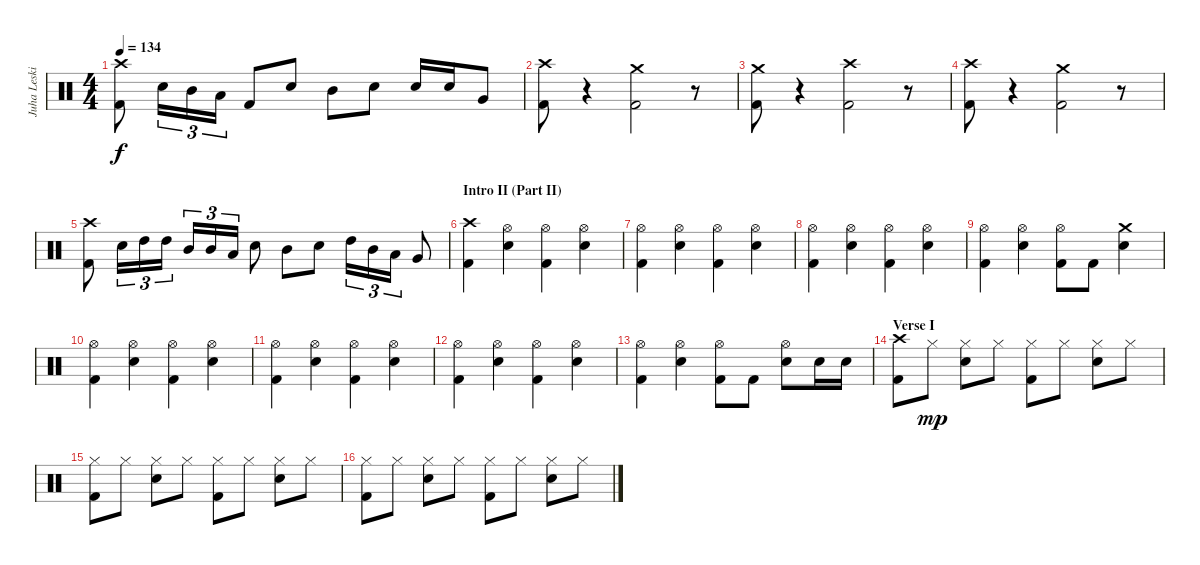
\track ("Juha Leskinen - Drums" "Juha Leski") {instrument percussion}
\staff {score}
\articulation defaults
\ts (4 4)
\tempo 134
\clef neutral
\ks c
("Crash high (hit)" "Kick (hit) 2").8{dy f} "Electric Snare (hit)".16{tu (3 2)} "Mid Tom (hit)".16{tu (3 2)} "Low Tom (hit)".16{tu (3 2)} "Kick (hit) 2".8 "Electric Snare (hit)".8 "Mid Tom (hit)".8 "Electric Snare (hit)".8 "Electric Snare (hit)".16 "Electric Snare (hit)".16 "Very Low Tom (hit)".8 |
("Crash high (hit)" "Kick (hit) 2").8 r.4 ("Crash medium (hit)" "Kick (hit) 2").2 r.8 |
("Crash medium (hit)" "Kick (hit) 2").8 r.4 ("Crash high (hit)" "Kick (hit) 2").2 r.8 |
("Crash high (hit)" "Kick (hit) 2").8 r.4 ("Crash medium (hit)" "Kick (hit) 2").2 r.8 |
("Crash high (hit)" "Kick (hit) 2").8 "Electric Snare (hit)".16{tu (3 2)} "High Tom (hit)".16{tu (3 2)} "High Tom (hit)".16{tu (3 2)} "Mid Tom (hit)".16{tu (3 2)} "Mid Tom (hit)".16{tu (3 2)} "Low Tom (hit)".16{tu (3 2)} "Electric Snare (hit)".8 "Mid Tom (hit)".8 "Electric Snare (hit)".8 "High Tom (hit)".16{tu (3 2)} "Mid Tom (hit)".16{tu (3 2)} "Low Tom (hit)".16{tu (3 2)} "Very Low Tom (hit)".8 |
\section ("" "Intro II (Part II)")
("Crash high (hit)" "Kick (hit) 2").4 ("Hi-Hat (open)" "Electric Snare (hit)").4 ("Hi-Hat (open)" "Kick (hit) 2").4 ("Hi-Hat (open)" "Electric Snare (hit)").4 |
("Hi-Hat (open)" "Kick (hit) 2").4 ("Hi-Hat (open)" "Electric Snare (hit)").4 ("Hi-Hat (open)" "Kick (hit) 2").4 ("Hi-Hat (open)" "Electric Snare (hit)").4 |
("Hi-Hat (open)" "Kick (hit) 2").4 ("Hi-Hat (open)" "Electric Snare (hit)").4 ("Hi-Hat (open)" "Kick (hit) 2").4 ("Hi-Hat (open)" "Electric Snare (hit)").4 |
("Hi-Hat (open)" "Kick (hit) 2").4 ("Hi-Hat (open)" "Electric Snare (hit)").4 ("Hi-Hat (open)" "Kick (hit) 2").8 "Kick (hit) 2".8 ("Crash medium (hit)" "Electric Snare (hit)").4 |
("Hi-Hat (open)" "Kick (hit) 2").4 ("Hi-Hat (open)" "Electric Snare (hit)").4 ("Hi-Hat (open)" "Kick (hit) 2").4 ("Hi-Hat (open)" "Electric Snare (hit)").4 |
("Hi-Hat (open)" "Kick (hit) 2").4 ("Hi-Hat (open)" "Electric Snare (hit)").4 ("Hi-Hat (open)" "Kick (hit) 2").4 ("Hi-Hat (open)" "Electric Snare (hit)").4 |
("Hi-Hat (open)" "Kick (hit) 2").4 ("Hi-Hat (open)" "Electric Snare (hit)").4 ("Hi-Hat (open)" "Kick (hit) 2").4 ("Hi-Hat (open)" "Electric Snare (hit)").4 |
("Hi-Hat (open)" "Kick (hit) 2").4 ("Hi-Hat (open)" "Electric Snare (hit)").4 ("Hi-Hat (open)" "Kick (hit) 2").8 "Kick (hit) 2".8 ("Hi-Hat (open)" "Electric Snare (hit)").8 "Electric Snare (hit)".16 "Electric Snare (hit)".16 |
\section ("" "Verse I")
("Crash high (hit)" "Kick (hit) 2").8 "Hi-Hat (closed)".8{dy mp} ("Hi-Hat (closed)" "Electric Snare (hit)").8 "Hi-Hat (closed)".8 ("Hi-Hat (closed)" "Kick (hit) 2").8 "Hi-Hat (closed)".8 ("Hi-Hat (closed)" "Electric Snare (hit)").8 "Hi-Hat (closed)".8 |
("Hi-Hat (closed)" "Kick (hit) 2").8 "Hi-Hat (closed)".8 ("Hi-Hat (closed)" "Electric Snare (hit)").8 "Hi-Hat (closed)".8 ("Hi-Hat (closed)" "Kick (hit) 2").8 "Hi-Hat (closed)".8 ("Hi-Hat (closed)" "Electric Snare (hit)").8 "Hi-Hat (closed)".8 |
("Hi-Hat (closed)" "Kick (hit) 2").8 "Hi-Hat (closed)".8 ("Hi-Hat (closed)" "Electric Snare (hit)").8 "Hi-Hat (closed)".8 ("Hi-Hat (closed)" "Kick (hit) 2").8 "Hi-Hat (closed)".8 ("Hi-Hat (closed)" "Electric Snare (hit)").8 "Hi-Hat (closed)".8
